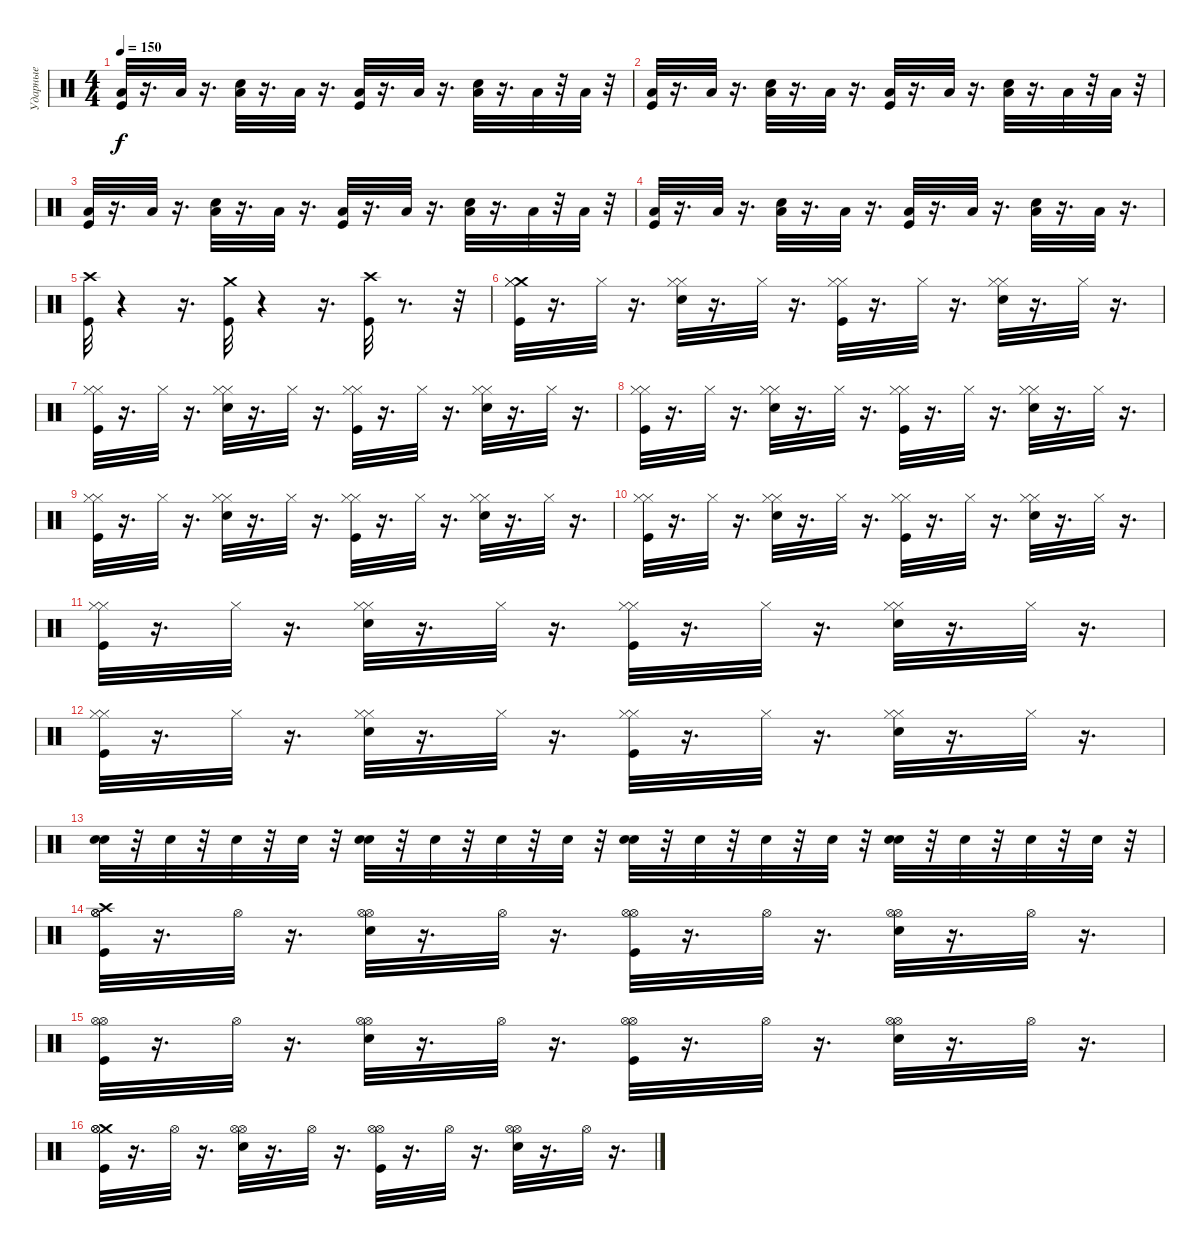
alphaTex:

\track ("Ударные" "Ударные") {instrument percussion}
\staff {score}
\articulation defaults
\ts (4 4)
\tempo 150
\clef neutral
\ks c
("Kick (hit)" "Low Floor Tom (hit)").32{dy f} r.16{d} "Low Floor Tom (hit)".32 r.16{d} ("Low Floor Tom (hit)" "Snare (hit) 2").32 r.16{d} "Low Floor Tom (hit)".32 r.16{d} ("Kick (hit)" "Low Floor Tom (hit)").32 r.16{d} "Low Floor Tom (hit)".32 r.16{d} ("Low Floor Tom (hit)" "Snare (hit) 2").32 r.16{d} "Low Floor Tom (hit)".32 r.32 "Low Floor Tom (hit)".32 r.32 |
("Kick (hit)" "Low Floor Tom (hit)").32 r.16{d} "Low Floor Tom (hit)".32 r.16{d} ("Low Floor Tom (hit)" "Snare (hit) 2").32 r.16{d} "Low Floor Tom (hit)".32 r.16{d} ("Low Floor Tom (hit)" "Kick (hit)").32 r.16{d} "Low Floor Tom (hit)".32 r.16{d} ("Snare (hit) 2" "Low Floor Tom (hit)").32 r.16{d} "Low Floor Tom (hit)".32 r.32 "Low Floor Tom (hit)".32 r.32 |
("Kick (hit)" "Low Floor Tom (hit)").32 r.16{d} "Low Floor Tom (hit)".32 r.16{d} ("Low Floor Tom (hit)" "Snare (hit) 2").32 r.16{d} "Low Floor Tom (hit)".32 r.16{d} ("Kick (hit)" "Low Floor Tom (hit)").32 r.16{d} "Low Floor Tom (hit)".32 r.16{d} ("Low Floor Tom (hit)" "Snare (hit) 2").32 r.16{d} "Low Floor Tom (hit)".32 r.32 "Low Floor Tom (hit)".32 r.32 |
("Kick (hit)" "Low Floor Tom (hit)").32 r.16{d} "Low Floor Tom (hit)".32 r.16{d} ("Low Floor Tom (hit)" "Snare (hit) 2").32 r.16{d} "Low Floor Tom (hit)".32 r.16{d} ("Low Floor Tom (hit)" "Kick (hit)").32 r.16{d} "Low Floor Tom (hit)".32 r.16{d} ("Snare (hit) 2" "Low Floor Tom (hit)").32 r.16{d} "Low Floor Tom (hit)".32 r.16{d} |
("Crash high (hit)" "Kick (hit)").32 r.4 r.16{d} ("Kick (hit)" "Crash medium (hit)").32 r.4 r.16{d} ("Crash high (hit)" "Kick (hit)").32 r.8{d} r.32 |
("Crash medium (hit)" "Hi-Hat (closed)" "Hi-Hat (closed)" "Kick (hit)").32 r.16{d} "Hi-Hat (closed)".32 r.16{d} ("Hi-Hat (closed)" "Hi-Hat (closed)" "Snare (hit) 2").32 r.16{d} "Hi-Hat (closed)".32 r.16{d} ("Hi-Hat (closed)" "Hi-Hat (closed)" "Kick (hit)").32 r.16{d} "Hi-Hat (closed)".32 r.16{d} ("Hi-Hat (closed)" "Hi-Hat (closed)" "Snare (hit) 2").32 r.16{d} "Hi-Hat (closed)".32 r.16{d} |
("Hi-Hat (closed)" "Hi-Hat (closed)" "Kick (hit)").32 r.16{d} "Hi-Hat (closed)".32 r.16{d} ("Hi-Hat (closed)" "Hi-Hat (closed)" "Snare (hit) 2").32 r.16{d} "Hi-Hat (closed)".32 r.16{d} ("Hi-Hat (closed)" "Hi-Hat (closed)" "Kick (hit)").32 r.16{d} "Hi-Hat (closed)".32 r.16{d} ("Hi-Hat (closed)" "Hi-Hat (closed)" "Snare (hit) 2").32 r.16{d} "Hi-Hat (closed)".32 r.16{d} |
("Hi-Hat (closed)" "Hi-Hat (closed)" "Kick (hit)").32 r.16{d} "Hi-Hat (closed)".32 r.16{d} ("Hi-Hat (closed)" "Hi-Hat (closed)" "Snare (hit) 2").32 r.16{d} "Hi-Hat (closed)".32 r.16{d} ("Hi-Hat (closed)" "Hi-Hat (closed)" "Kick (hit)").32 r.16{d} "Hi-Hat (closed)".32 r.16{d} ("Hi-Hat (closed)" "Hi-Hat (closed)" "Snare (hit) 2").32 r.16{d} "Hi-Hat (closed)".32 r.16{d} |
("Hi-Hat (closed)" "Hi-Hat (closed)" "Kick (hit)").32 r.16{d} "Hi-Hat (closed)".32 r.16{d} ("Hi-Hat (closed)" "Hi-Hat (closed)" "Snare (hit) 2").32 r.16{d} "Hi-Hat (closed)".32 r.16{d} ("Hi-Hat (closed)" "Hi-Hat (closed)" "Kick (hit)").32 r.16{d} "Hi-Hat (closed)".32 r.16{d} ("Hi-Hat (closed)" "Hi-Hat (closed)" "Snare (hit) 2").32 r.16{d} "Hi-Hat (closed)".32 r.16{d} |
("Hi-Hat (closed)" "Hi-Hat (closed)" "Kick (hit)").32 r.16{d} "Hi-Hat (closed)".32 r.16{d} ("Hi-Hat (closed)" "Hi-Hat (closed)" "Snare (hit) 2").32 r.16{d} "Hi-Hat (closed)".32 r.16{d} ("Hi-Hat (closed)" "Hi-Hat (closed)" "Kick (hit)").32 r.16{d} "Hi-Hat (closed)".32 r.16{d} ("Hi-Hat (closed)" "Hi-Hat (closed)" "Snare (hit) 2").32 r.16{d} "Hi-Hat (closed)".32 r.16{d} |
("Hi-Hat (closed)" "Hi-Hat (closed)" "Kick (hit)").32 r.16{d} "Hi-Hat (closed)".32 r.16{d} ("Hi-Hat (closed)" "Hi-Hat (closed)" "Snare (hit) 2").32 r.16{d} "Hi-Hat (closed)".32 r.16{d} ("Hi-Hat (closed)" "Hi-Hat (closed)" "Kick (hit)").32 r.16{d} "Hi-Hat (closed)".32 r.16{d} ("Hi-Hat (closed)" "Hi-Hat (closed)" "Snare (hit) 2").32 r.16{d} "Hi-Hat (closed)".32 r.16{d} |
("Hi-Hat (closed)" "Hi-Hat (closed)" "Kick (hit)").32 r.16{d} "Hi-Hat (closed)".32 r.16{d} ("Hi-Hat (closed)" "Hi-Hat (closed)" "Snare (hit) 2").32 r.16{d} "Hi-Hat (closed)".32 r.16{d} ("Hi-Hat (closed)" "Hi-Hat (closed)" "Kick (hit)").32 r.16{d} "Hi-Hat (closed)".32 r.16{d} ("Hi-Hat (closed)" "Hi-Hat (closed)" "Snare (hit) 2").32 r.16{d} "Hi-Hat (closed)".32 r.16{d} |
("Snare (hit) 2" "Snare (hit) 2").32 r.32 "Snare (hit) 2".32 r.32 "Snare (hit) 2".32 r.32 "Snare (hit) 2".32 r.32 ("Snare (hit) 2" "Snare (hit) 2").32 r.32 "Snare (hit) 2".32 r.32 "Snare (hit) 2".32 r.32 "Snare (hit) 2".32 r.32 ("Snare (hit) 2" "Snare (hit) 2").32 r.32 "Snare (hit) 2".32 r.32 "Snare (hit) 2".32 r.32 "Snare (hit) 2".32 r.32 ("Snare (hit) 2" "Snare (hit) 2").32 r.32 "Snare (hit) 2".32 r.32 "Snare (hit) 2".32 r.32 "Snare (hit) 2".32 r.32 |
("Crash high (hit)" "Kick (hit)" "Hi-Hat (open)" "Hi-Hat (open)").32 r.16{d} "Hi-Hat (open)".32 r.16{d} ("Hi-Hat (open)" "Snare (hit) 2" "Hi-Hat (open)").32 r.16{d} "Hi-Hat (open)".32 r.16{d} ("Hi-Hat (open)" "Kick (hit)" "Hi-Hat (open)").32 r.16{d} "Hi-Hat (open)".32 r.16{d} ("Hi-Hat (open)" "Hi-Hat (open)" "Snare (hit) 2").32 r.16{d} "Hi-Hat (open)".32 r.16{d} |
("Hi-Hat (open)" "Hi-Hat (open)" "Kick (hit)").32 r.16{d} "Hi-Hat (open)".32 r.16{d} ("Snare (hit) 2" "Hi-Hat (open)" "Hi-Hat (open)").32 r.16{d} "Hi-Hat (open)".32 r.16{d} ("Kick (hit)" "Hi-Hat (open)" "Hi-Hat (open)").32 r.16{d} "Hi-Hat (open)".32 r.16{d} ("Hi-Hat (open)" "Hi-Hat (open)" "Snare (hit) 2").32 r.16{d} "Hi-Hat (open)".32 r.16{d} |
("Crash medium (hit)" "Hi-Hat (open)" "Kick (hit)" "Hi-Hat (open)").32 r.16{d} "Hi-Hat (open)".32 r.16{d} ("Hi-Hat (open)" "Snare (hit) 2" "Hi-Hat (open)").32 r.16{d} "Hi-Hat (open)".32 r.16{d} ("Kick (hit)" "Hi-Hat (open)" "Hi-Hat (open)").32 r.16{d} "Hi-Hat (open)".32 r.16{d} ("Hi-Hat (open)" "Hi-Hat (open)" "Snare (hit) 2").32 r.16{d} "Hi-Hat (open)".32 r.16{d}
